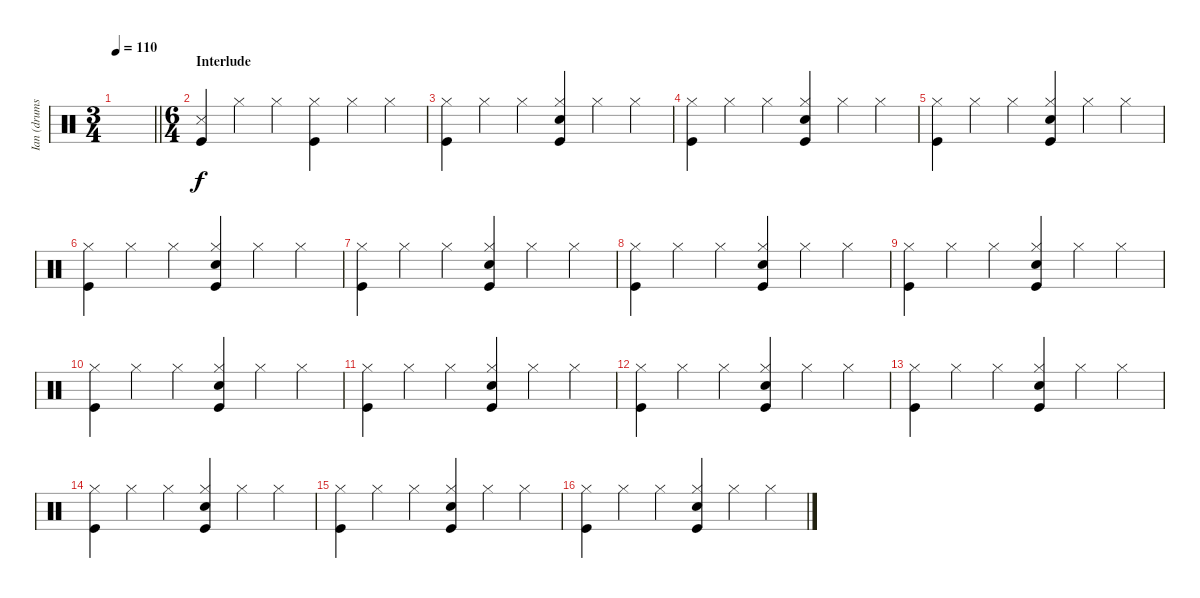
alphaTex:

\track ("Ian (drums)" "Ian (drums") {instrument percussion}
\staff {score}
\articulation defaults
\ts (3 4)
\tempo 110
\clef neutral
\barLineRight lightlight
\ks c
|
\ts (6 4)
\section ("" "Interlude")
("Kick (hit)" "Snare (side stick) 3").4 "Hi-Hat (closed)".4 "Hi-Hat (closed)".4 ("Kick (hit)" "Hi-Hat (closed)").4 "Hi-Hat (closed)".4 "Hi-Hat (closed)".4 |
("Kick (hit)" "Hi-Hat (closed)").4 "Hi-Hat (closed)".4 "Hi-Hat (closed)".4 ("Kick (hit)" "Hi-Hat (closed)" "Snare (hit) 2").4 "Hi-Hat (closed)".4 "Hi-Hat (closed)".4 |
("Kick (hit)" "Hi-Hat (closed)").4 "Hi-Hat (closed)".4 "Hi-Hat (closed)".4 ("Kick (hit)" "Hi-Hat (closed)" "Snare (hit) 2").4 "Hi-Hat (closed)".4 "Hi-Hat (closed)".4 |
("Kick (hit)" "Hi-Hat (closed)").4 "Hi-Hat (closed)".4 "Hi-Hat (closed)".4 ("Kick (hit)" "Hi-Hat (closed)" "Snare (hit) 2").4 "Hi-Hat (closed)".4 "Hi-Hat (closed)".4 |
("Kick (hit)" "Hi-Hat (closed)").4 "Hi-Hat (closed)".4 "Hi-Hat (closed)".4 ("Kick (hit)" "Hi-Hat (closed)" "Snare (hit) 2").4 "Hi-Hat (closed)".4 "Hi-Hat (closed)".4 |
("Kick (hit)" "Hi-Hat (closed)").4 "Hi-Hat (closed)".4 "Hi-Hat (closed)".4 ("Kick (hit)" "Hi-Hat (closed)" "Snare (hit) 2").4 "Hi-Hat (closed)".4 "Hi-Hat (closed)".4 |
("Kick (hit)" "Hi-Hat (closed)").4 "Hi-Hat (closed)".4 "Hi-Hat (closed)".4 ("Kick (hit)" "Hi-Hat (closed)" "Snare (hit) 2").4 "Hi-Hat (closed)".4 "Hi-Hat (closed)".4 |
("Kick (hit)" "Hi-Hat (closed)").4 "Hi-Hat (closed)".4 "Hi-Hat (closed)".4 ("Kick (hit)" "Hi-Hat (closed)" "Snare (hit) 2").4 "Hi-Hat (closed)".4 "Hi-Hat (closed)".4 |
("Kick (hit)" "Hi-Hat (closed)").4 "Hi-Hat (closed)".4 "Hi-Hat (closed)".4 ("Kick (hit)" "Hi-Hat (closed)" "Snare (hit) 2").4 "Hi-Hat (closed)".4 "Hi-Hat (closed)".4 |
("Kick (hit)" "Hi-Hat (closed)").4 "Hi-Hat (closed)".4 "Hi-Hat (closed)".4 ("Kick (hit)" "Hi-Hat (closed)" "Snare (hit) 2").4 "Hi-Hat (closed)".4 "Hi-Hat (closed)".4 |
("Kick (hit)" "Hi-Hat (closed)").4 "Hi-Hat (closed)".4 "Hi-Hat (closed)".4 ("Kick (hit)" "Hi-Hat (closed)" "Snare (hit) 2").4 "Hi-Hat (closed)".4 "Hi-Hat (closed)".4 |
("Kick (hit)" "Hi-Hat (closed)").4 "Hi-Hat (closed)".4 "Hi-Hat (closed)".4 ("Kick (hit)" "Hi-Hat (closed)" "Snare (hit) 2").4 "Hi-Hat (closed)".4 "Hi-Hat (closed)".4 |
("Kick (hit)" "Hi-Hat (closed)").4 "Hi-Hat (closed)".4 "Hi-Hat (closed)".4 ("Kick (hit)" "Hi-Hat (closed)" "Snare (hit) 2").4 "Hi-Hat (closed)".4 "Hi-Hat (closed)".4 |
("Kick (hit)" "Hi-Hat (closed)").4 "Hi-Hat (closed)".4 "Hi-Hat (closed)".4 ("Kick (hit)" "Hi-Hat (closed)" "Snare (hit) 2").4 "Hi-Hat (closed)".4 "Hi-Hat (closed)".4 |
("Kick (hit)" "Hi-Hat (closed)").4 "Hi-Hat (closed)".4 "Hi-Hat (closed)".4 ("Kick (hit)" "Hi-Hat (closed)" "Snare (hit) 2").4 "Hi-Hat (closed)".4 "Hi-Hat (closed)".4
